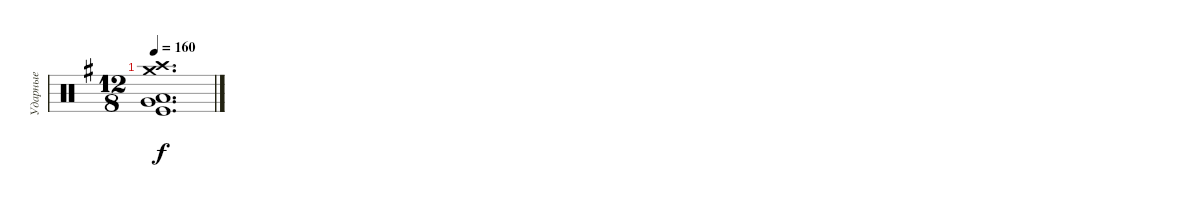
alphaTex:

\track ("Ударные" "Ударные") {instrument percussion}
\staff {score}
\articulation defaults
\ts (12 8)
\tempo 160
\clef neutral
\ks g
("Kick (hit)" "Very Low Tom (hit)" "Low Floor Tom (hit)" "Crash high (hit)" "Crash medium (hit)").1{d dy f}
